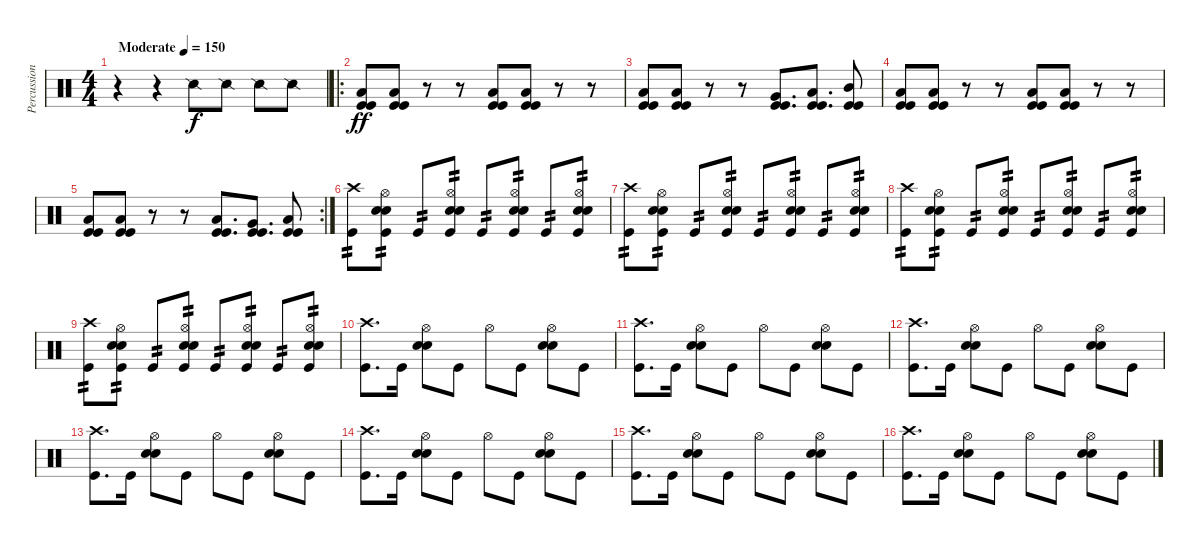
\track ("Percussion" "Percussion") {instrument percussion}
\staff {score}
\articulation defaults
\ts (4 4)
\tempo (150 "Moderate")
\clef neutral
\ks c
r.4{dy f} r.4 "Snare (side stick) 2".8 "Snare (side stick) 2".8 "Snare (side stick) 2".8 "Snare (side stick) 2".8 |
\ro
("Low Floor Tom (hit)" "Kick (hit)" "Kick (hit)").8{dy ff} ("Low Floor Tom (hit)" "Kick (hit)" "Kick (hit)").8 r.8 r.8 ("Low Floor Tom (hit)" "Kick (hit)" "Kick (hit)").8 ("Low Floor Tom (hit)" "Kick (hit)" "Kick (hit)").8 r.8 r.8 |
("Low Floor Tom (hit)" "Kick (hit)" "Kick (hit)").8 ("Low Floor Tom (hit)" "Kick (hit)" "Kick (hit)").8 r.8 r.8 ("Very Low Tom (hit)" "Kick (hit)" "Kick (hit)").8{d} ("Low Tom (hit)" "Kick (hit)" "Kick (hit)").8{d} ("Mid Tom (hit)" "Kick (hit)" "Kick (hit)").8 |
("Low Floor Tom (hit)" "Kick (hit)" "Kick (hit)").8 ("Low Floor Tom (hit)" "Kick (hit)" "Kick (hit)").8 r.8 r.8 ("Low Floor Tom (hit)" "Kick (hit)" "Kick (hit)").8 ("Low Floor Tom (hit)" "Kick (hit)" "Kick (hit)").8 r.8 r.8 |
\rc 2
("Low Floor Tom (hit)" "Kick (hit)" "Kick (hit)").8 ("Low Floor Tom (hit)" "Kick (hit)" "Kick (hit)").8 r.8 r.8 ("Low Tom (hit)" "Kick (hit)" "Kick (hit)").8{d} ("Very Low Tom (hit)" "Kick (hit)" "Kick (hit)").8{d} ("Low Tom (hit)" "Kick (hit)" "Kick (hit)").8 |
("Crash high (hit)" "Kick (hit)").8{tp 2} ("Hi-Hat (open)" "Snare (hit) 2" "Electric Snare (hit)" "Kick (hit)").8{tp 2} "Kick (hit)".8{tp 2} ("Hi-Hat (open)" "Snare (hit) 2" "Electric Snare (hit)" "Kick (hit)").8{tp 2} "Kick (hit)".8{tp 2} ("Hi-Hat (open)" "Snare (hit) 2" "Electric Snare (hit)" "Kick (hit)").8{tp 2} "Kick (hit)".8{tp 2} ("Hi-Hat (open)" "Snare (hit) 2" "Electric Snare (hit)" "Kick (hit)").8{tp 2} |
("Crash high (hit)" "Kick (hit)").8{tp 2} ("Hi-Hat (open)" "Snare (hit) 2" "Electric Snare (hit)" "Kick (hit)").8{tp 2} "Kick (hit)".8{tp 2} ("Hi-Hat (open)" "Snare (hit) 2" "Electric Snare (hit)" "Kick (hit)").8{tp 2} "Kick (hit)".8{tp 2} ("Hi-Hat (open)" "Snare (hit) 2" "Electric Snare (hit)" "Kick (hit)").8{tp 2} "Kick (hit)".8{tp 2} ("Hi-Hat (open)" "Snare (hit) 2" "Electric Snare (hit)" "Kick (hit)").8{tp 2} |
("Crash high (hit)" "Kick (hit)").8{tp 2} ("Hi-Hat (open)" "Snare (hit) 2" "Electric Snare (hit)" "Kick (hit)").8{tp 2} "Kick (hit)".8{tp 2} ("Hi-Hat (open)" "Snare (hit) 2" "Electric Snare (hit)" "Kick (hit)").8{tp 2} "Kick (hit)".8{tp 2} ("Hi-Hat (open)" "Snare (hit) 2" "Electric Snare (hit)" "Kick (hit)").8{tp 2} "Kick (hit)".8{tp 2} ("Hi-Hat (open)" "Snare (hit) 2" "Electric Snare (hit)" "Kick (hit)").8{tp 2} |
("Crash high (hit)" "Kick (hit)").8{tp 2} ("Hi-Hat (open)" "Snare (hit) 2" "Electric Snare (hit)" "Kick (hit)").8{tp 2} "Kick (hit)".8{tp 2} ("Hi-Hat (open)" "Snare (hit) 2" "Electric Snare (hit)" "Kick (hit)").8{tp 2} "Kick (hit)".8{tp 2} ("Hi-Hat (open)" "Snare (hit) 2" "Electric Snare (hit)" "Kick (hit)").8{tp 2} "Kick (hit)".8{tp 2} ("Hi-Hat (open)" "Snare (hit) 2" "Electric Snare (hit)" "Kick (hit)").8{tp 2} |
("Crash high (hit)" "Kick (hit)").8{d} "Kick (hit)".16 ("Hi-Hat (open)" "Snare (hit) 2" "Electric Snare (hit)").8 "Kick (hit)".8 "Hi-Hat (open)".8 "Kick (hit)".8 ("Hi-Hat (open)" "Snare (hit) 2" "Electric Snare (hit)").8 "Kick (hit)".8 |
("Crash high (hit)" "Kick (hit)").8{d} "Kick (hit)".16 ("Hi-Hat (open)" "Snare (hit) 2" "Electric Snare (hit)").8 "Kick (hit)".8 "Hi-Hat (open)".8 "Kick (hit)".8 ("Hi-Hat (open)" "Snare (hit) 2" "Electric Snare (hit)").8 "Kick (hit)".8 |
("Crash high (hit)" "Kick (hit)").8{d} "Kick (hit)".16 ("Hi-Hat (open)" "Snare (hit) 2" "Electric Snare (hit)").8 "Kick (hit)".8 "Hi-Hat (open)".8 "Kick (hit)".8 ("Hi-Hat (open)" "Snare (hit) 2" "Electric Snare (hit)").8 "Kick (hit)".8 |
("Crash high (hit)" "Kick (hit)").8{d} "Kick (hit)".16 ("Hi-Hat (open)" "Snare (hit) 2" "Electric Snare (hit)").8 "Kick (hit)".8 "Hi-Hat (open)".8 "Kick (hit)".8 ("Hi-Hat (open)" "Snare (hit) 2" "Electric Snare (hit)").8 "Kick (hit)".8 |
("Crash high (hit)" "Kick (hit)").8{d} "Kick (hit)".16 ("Hi-Hat (open)" "Snare (hit) 2" "Electric Snare (hit)").8 "Kick (hit)".8 "Hi-Hat (open)".8 "Kick (hit)".8 ("Hi-Hat (open)" "Snare (hit) 2" "Electric Snare (hit)").8 "Kick (hit)".8 |
("Crash high (hit)" "Kick (hit)").8{d} "Kick (hit)".16 ("Hi-Hat (open)" "Snare (hit) 2" "Electric Snare (hit)").8 "Kick (hit)".8 "Hi-Hat (open)".8 "Kick (hit)".8 ("Hi-Hat (open)" "Snare (hit) 2" "Electric Snare (hit)").8 "Kick (hit)".8 |
("Crash high (hit)" "Kick (hit)").8{d} "Kick (hit)".16 ("Hi-Hat (open)" "Snare (hit) 2" "Electric Snare (hit)").8 "Kick (hit)".8 "Hi-Hat (open)".8 "Kick (hit)".8 ("Hi-Hat (open)" "Snare (hit) 2" "Electric Snare (hit)").8 "Kick (hit)".8
